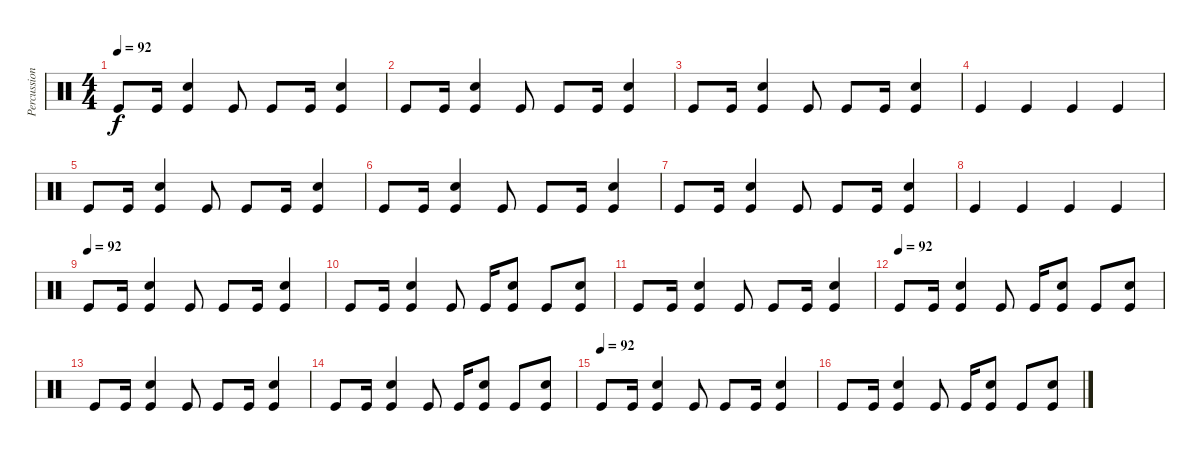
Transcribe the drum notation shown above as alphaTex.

\track ("Percussion" "Percussion") {instrument percussion}
\staff {score}
\articulation defaults
\ts (4 4)
\tempo 92
\clef neutral
\ks c "Kick (hit)".8{dy f} "Kick (hit)".16
("Kick (hit)" "Electric Snare (hit)").4 "Kick (hit)".8 "Kick (hit)".8 "Kick (hit)".16 ("Kick (hit)" "Electric Snare (hit)").4 |
"Kick (hit)".8 "Kick (hit)".16 ("Kick (hit)" "Electric Snare (hit)").4 "Kick (hit)".8 "Kick (hit)".8 "Kick (hit)".16 ("Kick (hit)" "Electric Snare (hit)").4 |
"Kick (hit)".8 "Kick (hit)".16 ("Kick (hit)" "Electric Snare (hit)").4 "Kick (hit)".8 "Kick (hit)".8 "Kick (hit)".16 ("Kick (hit)" "Electric Snare (hit)").4 |
"Kick (hit)".4 "Kick (hit)".4 "Kick (hit)".4 "Kick (hit)".4 |
"Kick (hit)".8 "Kick (hit)".16 ("Kick (hit)" "Electric Snare (hit)").4 "Kick (hit)".8 "Kick (hit)".8 "Kick (hit)".16 ("Kick (hit)" "Electric Snare (hit)").4 |
"Kick (hit)".8 "Kick (hit)".16 ("Kick (hit)" "Electric Snare (hit)").4 "Kick (hit)".8 "Kick (hit)".8 "Kick (hit)".16 ("Kick (hit)" "Electric Snare (hit)").4 |
"Kick (hit)".8 "Kick (hit)".16 ("Kick (hit)" "Electric Snare (hit)").4 "Kick (hit)".8 "Kick (hit)".8 "Kick (hit)".16 ("Kick (hit)" "Electric Snare (hit)").4 |
"Kick (hit)".4 "Kick (hit)".4 "Kick (hit)".4 "Kick (hit)".4 |
\tempo (92)
"Kick (hit)".8 "Kick (hit)".16 ("Kick (hit)" "Electric Snare (hit)").4 "Kick (hit)".8 "Kick (hit)".8 "Kick (hit)".16 ("Kick (hit)" "Electric Snare (hit)").4 |
"Kick (hit)".8 "Kick (hit)".16 ("Kick (hit)" "Electric Snare (hit)").4 "Kick (hit)".8 "Kick (hit)".16 ("Kick (hit)" "Electric Snare (hit)").8 "Kick (hit)".8 ("Kick (hit)" "Electric Snare (hit)").8 |
"Kick (hit)".8 "Kick (hit)".16 ("Kick (hit)" "Electric Snare (hit)").4 "Kick (hit)".8 "Kick (hit)".8 "Kick (hit)".16 ("Kick (hit)" "Electric Snare (hit)").4 |
\tempo (92)
"Kick (hit)".8 "Kick (hit)".16 ("Kick (hit)" "Electric Snare (hit)").4 "Kick (hit)".8 "Kick (hit)".16 ("Kick (hit)" "Electric Snare (hit)").8 "Kick (hit)".8 ("Kick (hit)" "Electric Snare (hit)").8 |
"Kick (hit)".8 "Kick (hit)".16 ("Kick (hit)" "Electric Snare (hit)").4 "Kick (hit)".8 "Kick (hit)".8 "Kick (hit)".16 ("Kick (hit)" "Electric Snare (hit)").4 |
"Kick (hit)".8 "Kick (hit)".16 ("Kick (hit)" "Electric Snare (hit)").4 "Kick (hit)".8 "Kick (hit)".16 ("Kick (hit)" "Electric Snare (hit)").8 "Kick (hit)".8 ("Kick (hit)" "Electric Snare (hit)").8 |
\tempo (92)
"Kick (hit)".8 "Kick (hit)".16 ("Kick (hit)" "Electric Snare (hit)").4 "Kick (hit)".8 "Kick (hit)".8 "Kick (hit)".16 ("Kick (hit)" "Electric Snare (hit)").4 |
"Kick (hit)".8 "Kick (hit)".16 ("Kick (hit)" "Electric Snare (hit)").4 "Kick (hit)".8 "Kick (hit)".16 ("Kick (hit)" "Electric Snare (hit)").8 "Kick (hit)".8 ("Kick (hit)" "Electric Snare (hit)").8
